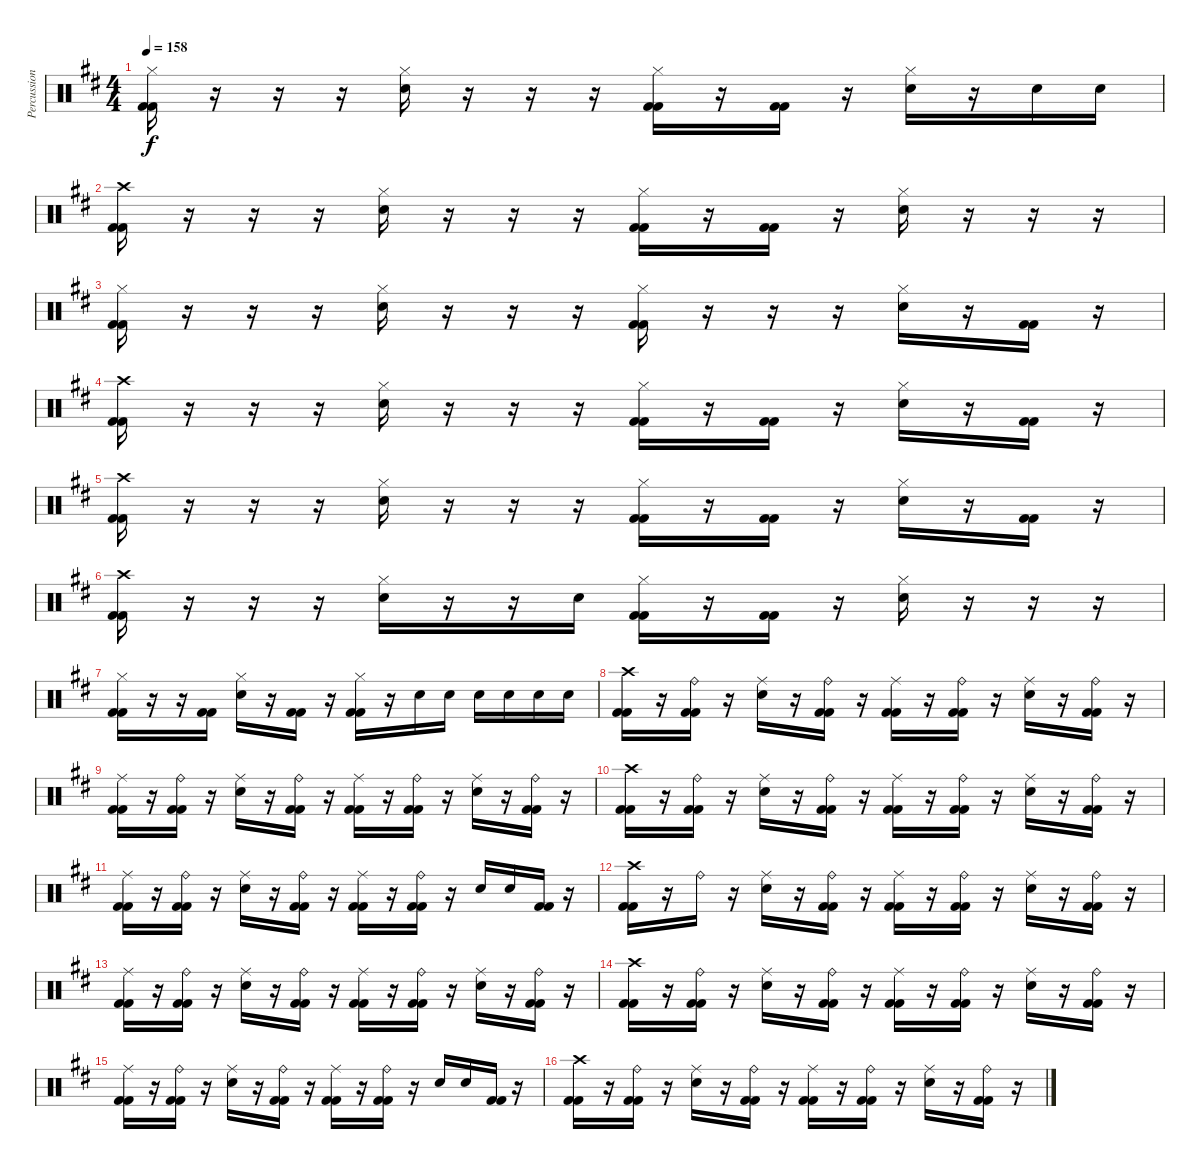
\track ("Percussion" "Percussion") {instrument percussion}
\staff {score}
\articulation defaults
\ts (4 4)
\tempo 158
\clef neutral
\ks d
("Hi-Hat (closed)" "Kick (hit) 2" "Kick (hit) 2").16{dy f} r.16 r.16 r.16 ("Hi-Hat (closed)" "Electric Snare (hit)").16 r.16 r.16 r.16 ("Hi-Hat (closed)" "Kick (hit) 2" "Kick (hit) 2").16 r.16 ("Kick (hit) 2" "Kick (hit) 2").16 r.16 ("Hi-Hat (closed)" "Electric Snare (hit)").16 r.16 "Electric Snare (hit)".16 "Electric Snare (hit)".16 |
("Crash high (hit)" "Kick (hit) 2" "Kick (hit) 2").16 r.16 r.16 r.16 ("Hi-Hat (closed)" "Electric Snare (hit)").16 r.16 r.16 r.16 ("Hi-Hat (closed)" "Kick (hit) 2" "Kick (hit) 2").16 r.16 ("Kick (hit) 2" "Kick (hit) 2").16 r.16 ("Hi-Hat (closed)" "Electric Snare (hit)").16 r.16 r.16 r.16 |
("Hi-Hat (closed)" "Kick (hit) 2" "Kick (hit) 2").16 r.16 r.16 r.16 ("Hi-Hat (closed)" "Electric Snare (hit)").16 r.16 r.16 r.16 ("Hi-Hat (closed)" "Kick (hit) 2" "Kick (hit) 2").16 r.16 r.16 r.16 ("Hi-Hat (closed)" "Electric Snare (hit)").16 r.16 ("Kick (hit) 2" "Kick (hit) 2").16 r.16 |
("Crash high (hit)" "Kick (hit) 2" "Kick (hit) 2").16 r.16 r.16 r.16 ("Hi-Hat (closed)" "Electric Snare (hit)").16 r.16 r.16 r.16 ("Hi-Hat (closed)" "Kick (hit) 2" "Kick (hit) 2").16 r.16 ("Kick (hit) 2" "Kick (hit) 2").16 r.16 ("Hi-Hat (closed)" "Electric Snare (hit)").16 r.16 ("Kick (hit) 2" "Kick (hit) 2").16 r.16 |
("Crash high (hit)" "Kick (hit) 2" "Kick (hit) 2").16 r.16 r.16 r.16 ("Hi-Hat (closed)" "Electric Snare (hit)").16 r.16 r.16 r.16 ("Hi-Hat (closed)" "Kick (hit) 2" "Kick (hit) 2").16 r.16 ("Kick (hit) 2" "Kick (hit) 2").16 r.16 ("Hi-Hat (closed)" "Electric Snare (hit)").16 r.16 ("Kick (hit) 2" "Kick (hit) 2").16 r.16 |
("Crash high (hit)" "Kick (hit) 2" "Kick (hit) 2").16 r.16 r.16 r.16 ("Hi-Hat (closed)" "Electric Snare (hit)").16 r.16 r.16 "Electric Snare (hit)".16 ("Hi-Hat (closed)" "Kick (hit) 2" "Kick (hit) 2").16 r.16 ("Kick (hit) 2" "Kick (hit) 2").16 r.16 ("Hi-Hat (closed)" "Electric Snare (hit)").16 r.16 r.16 r.16 |
("Hi-Hat (closed)" "Kick (hit) 2" "Kick (hit) 2").16 r.16 r.16 ("Kick (hit) 2" "Kick (hit) 2").16 ("Hi-Hat (closed)" "Electric Snare (hit)").16 r.16 ("Kick (hit) 2" "Kick (hit) 2").16 r.16 ("Hi-Hat (closed)" "Kick (hit) 2" "Kick (hit) 2").16 r.16 "Electric Snare (hit)".16 "Electric Snare (hit)".16 "Electric Snare (hit)".16 "Electric Snare (hit)".16 "Electric Snare (hit)".16 "Electric Snare (hit)".16 |
("Crash high (hit)" "Kick (hit) 2" "Kick (hit) 2").16 r.16 ("Ride (bell)" "Kick (hit) 2" "Kick (hit) 2").16 r.16 ("Ride (middle)" "Electric Snare (hit)").16 r.16 ("Ride (bell)" "Kick (hit) 2" "Kick (hit) 2").16 r.16 ("Ride (middle)" "Kick (hit) 2" "Kick (hit) 2").16 r.16 ("Ride (bell)" "Kick (hit) 2" "Kick (hit) 2").16 r.16 ("Ride (middle)" "Electric Snare (hit)").16 r.16 ("Ride (bell)" "Kick (hit) 2" "Kick (hit) 2").16 r.16 |
("Ride (middle)" "Kick (hit) 2" "Kick (hit) 2").16 r.16 ("Ride (bell)" "Kick (hit) 2" "Kick (hit) 2").16 r.16 ("Ride (middle)" "Electric Snare (hit)").16 r.16 ("Ride (bell)" "Kick (hit) 2" "Kick (hit) 2").16 r.16 ("Ride (middle)" "Kick (hit) 2" "Kick (hit) 2").16 r.16 ("Ride (bell)" "Kick (hit) 2" "Kick (hit) 2").16 r.16 ("Ride (middle)" "Electric Snare (hit)").16 r.16 ("Ride (bell)" "Kick (hit) 2" "Kick (hit) 2").16 r.16 |
("Crash high (hit)" "Kick (hit) 2" "Kick (hit) 2").16 r.16 ("Ride (bell)" "Kick (hit) 2" "Kick (hit) 2").16 r.16 ("Ride (middle)" "Electric Snare (hit)").16 r.16 ("Ride (bell)" "Kick (hit) 2" "Kick (hit) 2").16 r.16 ("Ride (middle)" "Kick (hit) 2" "Kick (hit) 2").16 r.16 ("Ride (bell)" "Kick (hit) 2" "Kick (hit) 2").16 r.16 ("Ride (middle)" "Electric Snare (hit)").16 r.16 ("Ride (bell)" "Kick (hit) 2" "Kick (hit) 2").16 r.16 |
("Ride (middle)" "Kick (hit) 2" "Kick (hit) 2").16 r.16 ("Ride (bell)" "Kick (hit) 2" "Kick (hit) 2").16 r.16 ("Ride (middle)" "Electric Snare (hit)").16 r.16 ("Ride (bell)" "Kick (hit) 2" "Kick (hit) 2").16 r.16 ("Ride (middle)" "Kick (hit) 2" "Kick (hit) 2").16 r.16 ("Ride (bell)" "Kick (hit) 2" "Kick (hit) 2").16 r.16 "Electric Snare (hit)".16 "Electric Snare (hit)".16 ("Kick (hit) 2" "Kick (hit) 2").16 r.16 |
("Crash high (hit)" "Kick (hit) 2" "Kick (hit) 2").16 r.16 "Ride (bell)".16 r.16 ("Ride (middle)" "Electric Snare (hit)").16 r.16 ("Ride (bell)" "Kick (hit) 2" "Kick (hit) 2").16 r.16 ("Ride (middle)" "Kick (hit) 2" "Kick (hit) 2").16 r.16 ("Ride (bell)" "Kick (hit) 2" "Kick (hit) 2").16 r.16 ("Ride (middle)" "Electric Snare (hit)").16 r.16 ("Ride (bell)" "Kick (hit) 2" "Kick (hit) 2").16 r.16 |
("Ride (middle)" "Kick (hit) 2" "Kick (hit) 2").16 r.16 ("Ride (bell)" "Kick (hit) 2" "Kick (hit) 2").16 r.16 ("Ride (middle)" "Electric Snare (hit)").16 r.16 ("Ride (bell)" "Kick (hit) 2" "Kick (hit) 2").16 r.16 ("Ride (middle)" "Kick (hit) 2" "Kick (hit) 2").16 r.16 ("Ride (bell)" "Kick (hit) 2" "Kick (hit) 2").16 r.16 ("Ride (middle)" "Electric Snare (hit)").16 r.16 ("Ride (bell)" "Kick (hit) 2" "Kick (hit) 2").16 r.16 |
("Crash high (hit)" "Kick (hit) 2" "Kick (hit) 2").16 r.16 ("Ride (bell)" "Kick (hit) 2" "Kick (hit) 2").16 r.16 ("Ride (middle)" "Electric Snare (hit)").16 r.16 ("Ride (bell)" "Kick (hit) 2" "Kick (hit) 2").16 r.16 ("Ride (middle)" "Kick (hit) 2" "Kick (hit) 2").16 r.16 ("Ride (bell)" "Kick (hit) 2" "Kick (hit) 2").16 r.16 ("Ride (middle)" "Electric Snare (hit)").16 r.16 ("Ride (bell)" "Kick (hit) 2" "Kick (hit) 2").16 r.16 |
("Ride (middle)" "Kick (hit) 2" "Kick (hit) 2").16 r.16 ("Ride (bell)" "Kick (hit) 2" "Kick (hit) 2").16 r.16 ("Ride (middle)" "Electric Snare (hit)").16 r.16 ("Ride (bell)" "Kick (hit) 2" "Kick (hit) 2").16 r.16 ("Ride (middle)" "Kick (hit) 2" "Kick (hit) 2").16 r.16 ("Ride (bell)" "Kick (hit) 2" "Kick (hit) 2").16 r.16 "Electric Snare (hit)".16 "Electric Snare (hit)".16 ("Kick (hit) 2" "Kick (hit) 2").16 r.16 |
("Crash high (hit)" "Kick (hit) 2" "Kick (hit) 2").16 r.16 ("Ride (bell)" "Kick (hit) 2" "Kick (hit) 2").16 r.16 ("Ride (middle)" "Electric Snare (hit)").16 r.16 ("Ride (bell)" "Kick (hit) 2" "Kick (hit) 2").16 r.16 ("Ride (middle)" "Kick (hit) 2" "Kick (hit) 2").16 r.16 ("Ride (bell)" "Kick (hit) 2" "Kick (hit) 2").16 r.16 ("Ride (middle)" "Electric Snare (hit)").16 r.16 ("Ride (bell)" "Kick (hit) 2" "Kick (hit) 2").16 r.16
